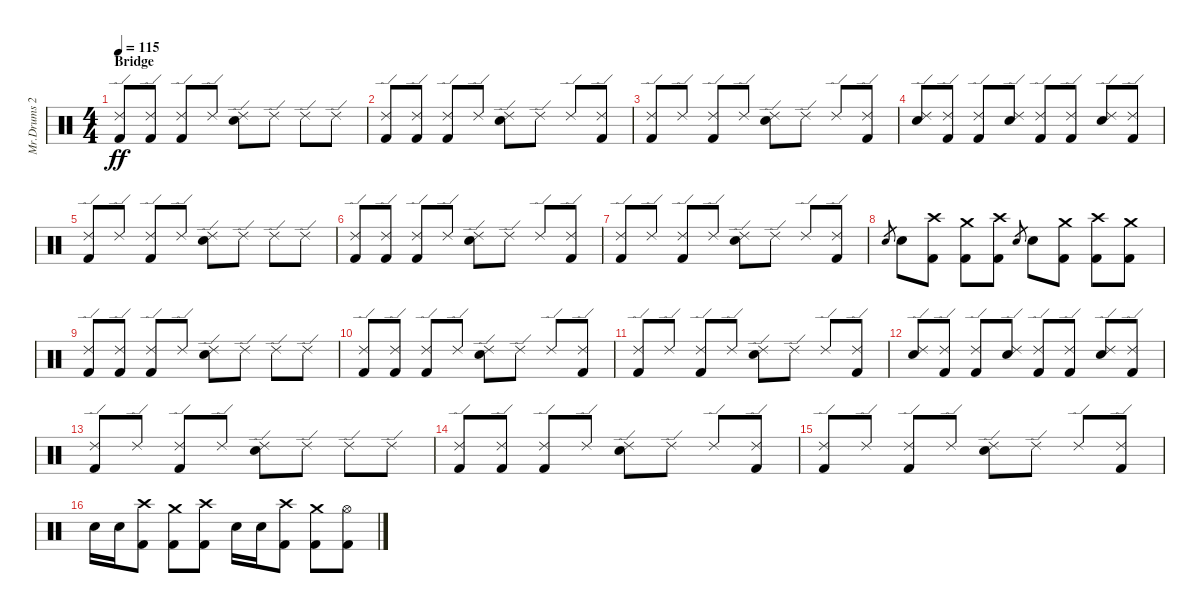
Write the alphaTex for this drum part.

\track ("Mr.Drums 2" "Mr.Drums 2") {instrument percussion}
\staff {score}
\articulation defaults
\ts (4 4)
\section ("" "Bridge")
\tempo 115
\clef neutral
\ks c
("Ride (edge) 2" "Kick (hit) 2").8{dy ff} ("Ride (edge) 2" "Kick (hit) 2").8 ("Ride (edge) 2" "Kick (hit) 2").8 "Ride (edge) 2".8 ("Ride (edge) 2" "Electric Snare (hit)").8 "Ride (edge) 2".8 "Ride (edge) 2".8 "Ride (edge) 2".8 |
("Ride (edge) 2" "Kick (hit) 2").8 ("Ride (edge) 2" "Kick (hit) 2").8 ("Ride (edge) 2" "Kick (hit) 2").8 "Ride (edge) 2".8 ("Ride (edge) 2" "Electric Snare (hit)").8 "Ride (edge) 2".8 "Ride (edge) 2".8 ("Ride (edge) 2" "Kick (hit) 2").8 |
("Ride (edge) 2" "Kick (hit) 2").8 "Ride (edge) 2".8 ("Ride (edge) 2" "Kick (hit) 2").8 "Ride (edge) 2".8 ("Ride (edge) 2" "Electric Snare (hit)").8 "Ride (edge) 2".8 "Ride (edge) 2".8 ("Ride (edge) 2" "Kick (hit) 2").8 |
("Ride (edge) 2" "Electric Snare (hit)").8 ("Ride (edge) 2" "Kick (hit) 2").8 ("Ride (edge) 2" "Kick (hit) 2").8 ("Ride (edge) 2" "Electric Snare (hit)").8 ("Ride (edge) 2" "Kick (hit) 2").8 ("Ride (edge) 2" "Kick (hit) 2").8 ("Ride (edge) 2" "Electric Snare (hit)").8 ("Ride (edge) 2" "Kick (hit) 2").8 |
("Ride (edge) 2" "Kick (hit) 2").8 "Ride (edge) 2".8 ("Ride (edge) 2" "Kick (hit) 2").8 "Ride (edge) 2".8 ("Ride (edge) 2" "Electric Snare (hit)").8 "Ride (edge) 2".8 "Ride (edge) 2".8 "Ride (edge) 2".8 |
("Ride (edge) 2" "Kick (hit) 2").8 ("Ride (edge) 2" "Kick (hit) 2").8 ("Ride (edge) 2" "Kick (hit) 2").8 "Ride (edge) 2".8 ("Ride (edge) 2" "Electric Snare (hit)").8 "Ride (edge) 2".8 "Ride (edge) 2".8 ("Ride (edge) 2" "Kick (hit) 2").8 |
("Ride (edge) 2" "Kick (hit) 2").8 "Ride (edge) 2".8 ("Ride (edge) 2" "Kick (hit) 2").8 "Ride (edge) 2".8 ("Ride (edge) 2" "Electric Snare (hit)").8 "Ride (edge) 2".8 "Ride (edge) 2".8 ("Ride (edge) 2" "Kick (hit) 2").8 |
"Electric Snare (hit)".8{gr} "Electric Snare (hit)".8 ("Crash high (hit)" "Kick (hit) 2").8 ("Crash medium (hit)" "Kick (hit) 2").8 ("Crash high (hit)" "Kick (hit) 2").8 "Electric Snare (hit)".8{gr} "Electric Snare (hit)".8 ("Crash medium (hit)" "Kick (hit) 2").8 ("Crash high (hit)" "Kick (hit) 2").8 ("Crash medium (hit)" "Kick (hit) 2").8 |
("Ride (edge) 2" "Kick (hit) 2").8 ("Ride (edge) 2" "Kick (hit) 2").8 ("Ride (edge) 2" "Kick (hit) 2").8 "Ride (edge) 2".8 ("Ride (edge) 2" "Electric Snare (hit)").8 "Ride (edge) 2".8 "Ride (edge) 2".8 "Ride (edge) 2".8 |
("Ride (edge) 2" "Kick (hit) 2").8 ("Ride (edge) 2" "Kick (hit) 2").8 ("Ride (edge) 2" "Kick (hit) 2").8 "Ride (edge) 2".8 ("Ride (edge) 2" "Electric Snare (hit)").8 "Ride (edge) 2".8 "Ride (edge) 2".8 ("Ride (edge) 2" "Kick (hit) 2").8 |
("Ride (edge) 2" "Kick (hit) 2").8 "Ride (edge) 2".8 ("Ride (edge) 2" "Kick (hit) 2").8 "Ride (edge) 2".8 ("Ride (edge) 2" "Electric Snare (hit)").8 "Ride (edge) 2".8 "Ride (edge) 2".8 ("Ride (edge) 2" "Kick (hit) 2").8 |
("Ride (edge) 2" "Electric Snare (hit)").8 ("Ride (edge) 2" "Kick (hit) 2").8 ("Ride (edge) 2" "Kick (hit) 2").8 ("Ride (edge) 2" "Electric Snare (hit)").8 ("Ride (edge) 2" "Kick (hit) 2").8 ("Ride (edge) 2" "Kick (hit) 2").8 ("Ride (edge) 2" "Electric Snare (hit)").8 ("Ride (edge) 2" "Kick (hit) 2").8 |
("Ride (edge) 2" "Kick (hit) 2").8 "Ride (edge) 2".8 ("Ride (edge) 2" "Kick (hit) 2").8 "Ride (edge) 2".8 ("Ride (edge) 2" "Electric Snare (hit)").8 "Ride (edge) 2".8 "Ride (edge) 2".8 "Ride (edge) 2".8 |
("Ride (edge) 2" "Kick (hit) 2").8 ("Ride (edge) 2" "Kick (hit) 2").8 ("Ride (edge) 2" "Kick (hit) 2").8 "Ride (edge) 2".8 ("Ride (edge) 2" "Electric Snare (hit)").8 "Ride (edge) 2".8 "Ride (edge) 2".8 ("Ride (edge) 2" "Kick (hit) 2").8 |
("Ride (edge) 2" "Kick (hit) 2").8 "Ride (edge) 2".8 ("Ride (edge) 2" "Kick (hit) 2").8 "Ride (edge) 2".8 ("Ride (edge) 2" "Electric Snare (hit)").8 "Ride (edge) 2".8 "Ride (edge) 2".8 ("Ride (edge) 2" "Kick (hit) 2").8 |
"Electric Snare (hit)".16 "Electric Snare (hit)".16 ("Crash high (hit)" "Kick (hit) 2").8 ("Crash medium (hit)" "Kick (hit) 2").8 ("Crash high (hit)" "Kick (hit) 2").8 "Electric Snare (hit)".16 "Electric Snare (hit)".16 ("Crash high (hit)" "Kick (hit) 2").8 ("Crash medium (hit)" "Kick (hit) 2").8 ("Hi-Hat (open)" "Kick (hit) 2").8
